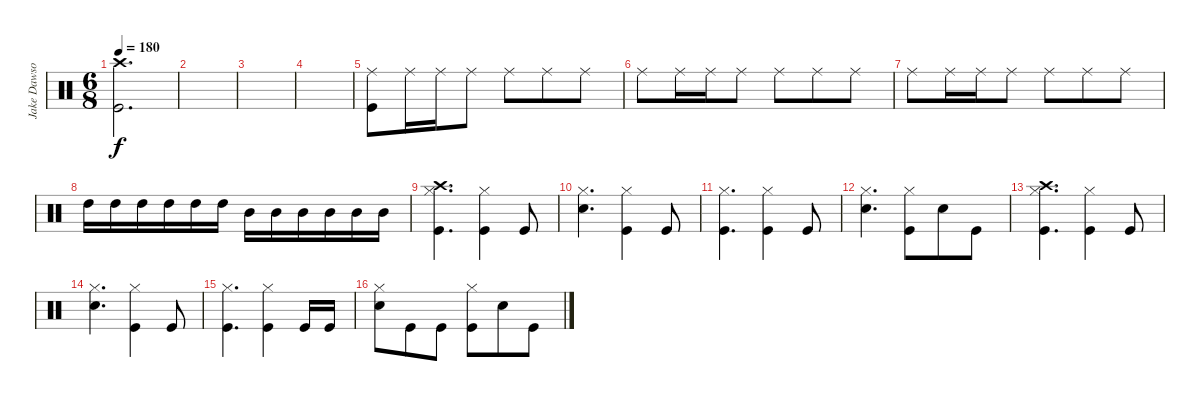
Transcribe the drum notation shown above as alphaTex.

\track ("Jake Dawson" "Jake Dawso") {instrument percussion}
\staff {score}
\articulation defaults
\ts (6 8)
\tempo 180
\clef neutral
\ks c
("Crash high (hit)" "Kick (hit)").2{d dy f} |
|
|
|
("Ride (middle)" "Kick (hit)").8 "Ride (middle)".16 "Ride (middle)".16 "Ride (middle)".8 "Ride (middle)".8 "Ride (middle)".8 "Ride (middle)".8 |
"Ride (middle)".8 "Ride (middle)".16 "Ride (middle)".16 "Ride (middle)".8 "Ride (middle)".8 "Ride (middle)".8 "Ride (middle)".8 |
"Ride (middle)".8 "Ride (middle)".16 "Ride (middle)".16 "Ride (middle)".8 "Ride (middle)".8 "Ride (middle)".8 "Ride (middle)".8 |
"High Tom (hit)".16 "High Tom (hit)".16 "High Tom (hit)".16 "High Tom (hit)".16 "High Tom (hit)".16 "High Tom (hit)".16 "Mid Tom (hit)".16 "Mid Tom (hit)".16 "Mid Tom (hit)".16 "Mid Tom (hit)".16 "Mid Tom (hit)".16 "Mid Tom (hit)".16 |
("Crash high (hit)" "Hi-Hat (closed)" "Kick (hit)").4{d} ("Hi-Hat (closed)" "Kick (hit)").4 "Kick (hit)".8 |
("Hi-Hat (closed)" "Snare (hit) 2").4{d} ("Hi-Hat (closed)" "Kick (hit)").4 "Kick (hit)".8 |
("Hi-Hat (closed)" "Kick (hit)").4{d} ("Hi-Hat (closed)" "Kick (hit)").4 "Kick (hit)".8 |
("Hi-Hat (closed)" "Snare (hit) 2").4{d} ("Hi-Hat (closed)" "Kick (hit)").8 "Snare (hit) 2".8 "Kick (hit)".8 |
("Crash high (hit)" "Hi-Hat (closed)" "Kick (hit)").4{d} ("Hi-Hat (closed)" "Kick (hit)").4 "Kick (hit)".8 |
("Hi-Hat (closed)" "Snare (hit) 2").4{d} ("Hi-Hat (closed)" "Kick (hit)").4 "Kick (hit)".8 |
("Hi-Hat (closed)" "Kick (hit)").4{d} ("Hi-Hat (closed)" "Kick (hit)").4 "Kick (hit)".16 "Kick (hit)".16 |
("Hi-Hat (closed)" "Snare (hit) 2").8 "Kick (hit)".8 "Kick (hit)".8 ("Hi-Hat (closed)" "Kick (hit)").8 "Snare (hit) 2".8 "Kick (hit)".8
